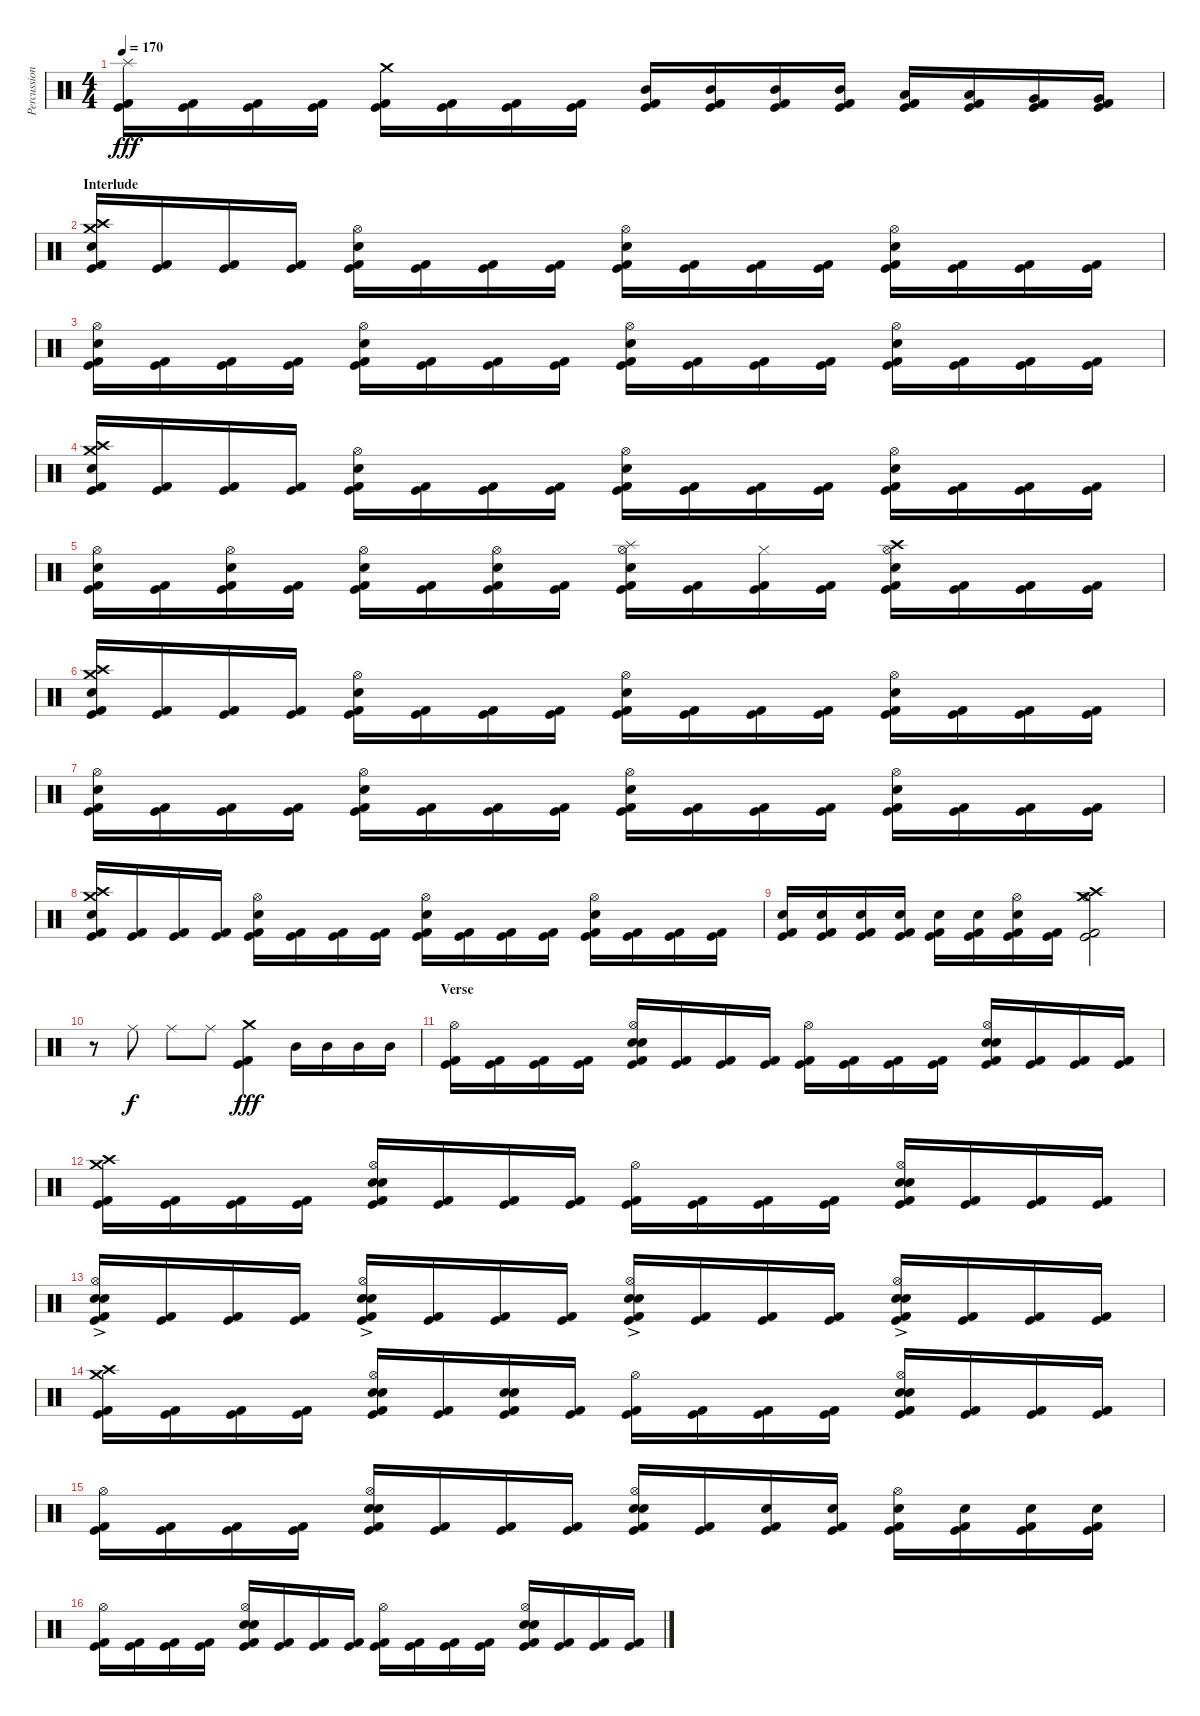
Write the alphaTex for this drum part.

\track ("Percussions" "Percussion") {instrument percussion}
\staff {score}
\articulation defaults
\ts (4 4)
\tempo 170
\clef neutral
\ks c
("Splash (hit)" "Kick (hit)" "Kick (hit) 2").16{dy fff} ("Kick (hit)" "Kick (hit) 2").16 ("Kick (hit)" "Kick (hit) 2").16 ("Kick (hit)" "Kick (hit) 2").16 ("Crash medium (hit)" "Kick (hit)" "Kick (hit) 2").16 ("Kick (hit)" "Kick (hit) 2").16 ("Kick (hit)" "Kick (hit) 2").16 ("Kick (hit)" "Kick (hit) 2").16 ("Mid Tom (hit)" "Kick (hit)" "Kick (hit) 2").16 ("Mid Tom (hit)" "Kick (hit)" "Kick (hit) 2").16 ("Mid Tom (hit)" "Kick (hit)" "Kick (hit) 2").16 ("Mid Tom (hit)" "Kick (hit)" "Kick (hit) 2").16 ("Low Tom (hit)" "Kick (hit)" "Kick (hit) 2").16 ("Low Tom (hit)" "Kick (hit)" "Kick (hit) 2").16 ("Very Low Tom (hit)" "Kick (hit)" "Kick (hit) 2").16 ("Very Low Tom (hit)" "Kick (hit)" "Kick (hit) 2").16 |
\section ("" "Interlude")
("Crash high (hit)" "Crash medium (hit)" "Electric Snare (hit)" "Kick (hit)" "Kick (hit) 2").16 ("Kick (hit)" "Kick (hit) 2").16 ("Kick (hit)" "Kick (hit) 2").16 ("Kick (hit)" "Kick (hit) 2").16 ("Hi-Hat (open)" "Electric Snare (hit)" "Kick (hit)" "Kick (hit) 2").16 ("Kick (hit)" "Kick (hit) 2").16 ("Kick (hit)" "Kick (hit) 2").16 ("Kick (hit)" "Kick (hit) 2").16 ("Hi-Hat (open)" "Electric Snare (hit)" "Kick (hit)" "Kick (hit) 2").16 ("Kick (hit)" "Kick (hit) 2").16 ("Kick (hit)" "Kick (hit) 2").16 ("Kick (hit)" "Kick (hit) 2").16 ("Hi-Hat (open)" "Electric Snare (hit)" "Kick (hit)" "Kick (hit) 2").16 ("Kick (hit)" "Kick (hit) 2").16 ("Kick (hit)" "Kick (hit) 2").16 ("Kick (hit)" "Kick (hit) 2").16 |
("Hi-Hat (open)" "Electric Snare (hit)" "Kick (hit)" "Kick (hit) 2").16 ("Kick (hit)" "Kick (hit) 2").16 ("Kick (hit)" "Kick (hit) 2").16 ("Kick (hit)" "Kick (hit) 2").16 ("Hi-Hat (open)" "Electric Snare (hit)" "Kick (hit)" "Kick (hit) 2").16 ("Kick (hit)" "Kick (hit) 2").16 ("Kick (hit)" "Kick (hit) 2").16 ("Kick (hit)" "Kick (hit) 2").16 ("Hi-Hat (open)" "Electric Snare (hit)" "Kick (hit)" "Kick (hit) 2").16 ("Kick (hit)" "Kick (hit) 2").16 ("Kick (hit)" "Kick (hit) 2").16 ("Kick (hit)" "Kick (hit) 2").16 ("Hi-Hat (open)" "Electric Snare (hit)" "Kick (hit)" "Kick (hit) 2").16 ("Kick (hit)" "Kick (hit) 2").16 ("Kick (hit)" "Kick (hit) 2").16 ("Kick (hit)" "Kick (hit) 2").16 |
("Crash high (hit)" "Crash medium (hit)" "Electric Snare (hit)" "Kick (hit)" "Kick (hit) 2").16 ("Kick (hit)" "Kick (hit) 2").16 ("Kick (hit)" "Kick (hit) 2").16 ("Kick (hit)" "Kick (hit) 2").16 ("Hi-Hat (open)" "Electric Snare (hit)" "Kick (hit)" "Kick (hit) 2").16 ("Kick (hit)" "Kick (hit) 2").16 ("Kick (hit)" "Kick (hit) 2").16 ("Kick (hit)" "Kick (hit) 2").16 ("Hi-Hat (open)" "Electric Snare (hit)" "Kick (hit)" "Kick (hit) 2").16 ("Kick (hit)" "Kick (hit) 2").16 ("Kick (hit)" "Kick (hit) 2").16 ("Kick (hit)" "Kick (hit) 2").16 ("Hi-Hat (open)" "Electric Snare (hit)" "Kick (hit)" "Kick (hit) 2").16 ("Kick (hit)" "Kick (hit) 2").16 ("Kick (hit)" "Kick (hit) 2").16 ("Kick (hit)" "Kick (hit) 2").16 |
("Hi-Hat (open)" "Electric Snare (hit)" "Kick (hit)" "Kick (hit) 2").16 ("Kick (hit)" "Kick (hit) 2").16 ("Hi-Hat (open)" "Electric Snare (hit)" "Kick (hit)" "Kick (hit) 2").16 ("Kick (hit)" "Kick (hit) 2").16 ("Hi-Hat (open)" "Electric Snare (hit)" "Kick (hit)" "Kick (hit) 2").16 ("Kick (hit)" "Kick (hit) 2").16 ("Hi-Hat (open)" "Electric Snare (hit)" "Kick (hit)" "Kick (hit) 2").16 ("Kick (hit)" "Kick (hit) 2").16 ("Splash (hit)" "Hi-Hat (open)" "Electric Snare (hit)" "Kick (hit)" "Kick (hit) 2").16 ("Kick (hit)" "Kick (hit) 2").16 ("Hi-Hat (closed)" "Kick (hit)" "Kick (hit) 2").16 ("Kick (hit)" "Kick (hit) 2").16 ("Crash high (hit)" "Hi-Hat (open)" "Electric Snare (hit)" "Kick (hit)" "Kick (hit) 2").16 ("Kick (hit)" "Kick (hit) 2").16 ("Kick (hit)" "Kick (hit) 2").16 ("Kick (hit)" "Kick (hit) 2").16 |
("Crash high (hit)" "Crash medium (hit)" "Electric Snare (hit)" "Kick (hit)" "Kick (hit) 2").16 ("Kick (hit)" "Kick (hit) 2").16 ("Kick (hit)" "Kick (hit) 2").16 ("Kick (hit)" "Kick (hit) 2").16 ("Hi-Hat (open)" "Electric Snare (hit)" "Kick (hit)" "Kick (hit) 2").16 ("Kick (hit)" "Kick (hit) 2").16 ("Kick (hit)" "Kick (hit) 2").16 ("Kick (hit)" "Kick (hit) 2").16 ("Hi-Hat (open)" "Electric Snare (hit)" "Kick (hit)" "Kick (hit) 2").16 ("Kick (hit)" "Kick (hit) 2").16 ("Kick (hit)" "Kick (hit) 2").16 ("Kick (hit)" "Kick (hit) 2").16 ("Hi-Hat (open)" "Electric Snare (hit)" "Kick (hit)" "Kick (hit) 2").16 ("Kick (hit)" "Kick (hit) 2").16 ("Kick (hit)" "Kick (hit) 2").16 ("Kick (hit)" "Kick (hit) 2").16 |
("Hi-Hat (open)" "Electric Snare (hit)" "Kick (hit)" "Kick (hit) 2").16 ("Kick (hit)" "Kick (hit) 2").16 ("Kick (hit)" "Kick (hit) 2").16 ("Kick (hit)" "Kick (hit) 2").16 ("Hi-Hat (open)" "Electric Snare (hit)" "Kick (hit)" "Kick (hit) 2").16 ("Kick (hit)" "Kick (hit) 2").16 ("Kick (hit)" "Kick (hit) 2").16 ("Kick (hit)" "Kick (hit) 2").16 ("Hi-Hat (open)" "Electric Snare (hit)" "Kick (hit)" "Kick (hit) 2").16 ("Kick (hit)" "Kick (hit) 2").16 ("Kick (hit)" "Kick (hit) 2").16 ("Kick (hit)" "Kick (hit) 2").16 ("Hi-Hat (open)" "Electric Snare (hit)" "Kick (hit)" "Kick (hit) 2").16 ("Kick (hit)" "Kick (hit) 2").16 ("Kick (hit)" "Kick (hit) 2").16 ("Kick (hit)" "Kick (hit) 2").16 |
("Crash high (hit)" "Crash medium (hit)" "Electric Snare (hit)" "Kick (hit)" "Kick (hit) 2").16 ("Kick (hit)" "Kick (hit) 2").16 ("Kick (hit)" "Kick (hit) 2").16 ("Kick (hit)" "Kick (hit) 2").16 ("Hi-Hat (open)" "Electric Snare (hit)" "Kick (hit)" "Kick (hit) 2").16 ("Kick (hit)" "Kick (hit) 2").16 ("Kick (hit)" "Kick (hit) 2").16 ("Kick (hit)" "Kick (hit) 2").16 ("Hi-Hat (open)" "Electric Snare (hit)" "Kick (hit)" "Kick (hit) 2").16 ("Kick (hit)" "Kick (hit) 2").16 ("Kick (hit)" "Kick (hit) 2").16 ("Kick (hit)" "Kick (hit) 2").16 ("Hi-Hat (open)" "Electric Snare (hit)" "Kick (hit)" "Kick (hit) 2").16 ("Kick (hit)" "Kick (hit) 2").16 ("Kick (hit)" "Kick (hit) 2").16 ("Kick (hit)" "Kick (hit) 2").16 |
("Electric Snare (hit)" "Kick (hit)" "Kick (hit) 2").16 ("Electric Snare (hit)" "Kick (hit)" "Kick (hit) 2").16 ("Electric Snare (hit)" "Kick (hit)" "Kick (hit) 2").16 ("Electric Snare (hit)" "Kick (hit)" "Kick (hit) 2").16 ("Electric Snare (hit)" "Kick (hit)" "Kick (hit) 2").16 ("Electric Snare (hit)" "Kick (hit)" "Kick (hit) 2").16 ("Hi-Hat (open)" "Electric Snare (hit)" "Kick (hit)" "Kick (hit) 2").16 ("Kick (hit)" "Kick (hit) 2").16 ("Crash high (hit)" "Crash medium (hit)" "Hi-Hat (open)" "Kick (hit)" "Kick (hit) 2").2 |
r.8 "Ride (middle)".8{dy f} "Ride (middle)".8 "Ride (middle)".8 ("Crash medium (hit)" "Kick (hit)" "Kick (hit) 2").4{dy fff} "Mid Tom (hit)".16 "Mid Tom (hit)".16 "Mid Tom (hit)".16 "Mid Tom (hit)".16 |
\section ("" "Verse")
("Hi-Hat (open)" "Kick (hit)" "Kick (hit) 2").16 ("Kick (hit)" "Kick (hit) 2").16 ("Kick (hit)" "Kick (hit) 2").16 ("Kick (hit)" "Kick (hit) 2").16 ("Hi-Hat (open)" "Snare (hit) 2" "Electric Snare (hit)" "Kick (hit)" "Kick (hit) 2").16 ("Kick (hit)" "Kick (hit) 2").16 ("Kick (hit)" "Kick (hit) 2").16 ("Kick (hit)" "Kick (hit) 2").16 ("Hi-Hat (open)" "Kick (hit)" "Kick (hit) 2").16 ("Kick (hit)" "Kick (hit) 2").16 ("Kick (hit)" "Kick (hit) 2").16 ("Kick (hit)" "Kick (hit) 2").16 ("Hi-Hat (open)" "Snare (hit) 2" "Electric Snare (hit)" "Kick (hit)" "Kick (hit) 2").16 ("Kick (hit)" "Kick (hit) 2").16 ("Kick (hit)" "Kick (hit) 2").16 ("Kick (hit)" "Kick (hit) 2").16 |
("Crash high (hit)" "Crash medium (hit)" "Kick (hit)" "Kick (hit) 2").16 ("Kick (hit)" "Kick (hit) 2").16 ("Kick (hit)" "Kick (hit) 2").16 ("Kick (hit)" "Kick (hit) 2").16 ("Hi-Hat (open)" "Snare (hit) 2" "Electric Snare (hit)" "Kick (hit)" "Kick (hit) 2").16 ("Kick (hit)" "Kick (hit) 2").16 ("Kick (hit)" "Kick (hit) 2").16 ("Kick (hit)" "Kick (hit) 2").16 ("Hi-Hat (open)" "Kick (hit)" "Kick (hit) 2").16 ("Kick (hit)" "Kick (hit) 2").16 ("Kick (hit)" "Kick (hit) 2").16 ("Kick (hit)" "Kick (hit) 2").16 ("Hi-Hat (open)" "Snare (hit) 2" "Electric Snare (hit)" "Kick (hit)" "Kick (hit) 2").16 ("Kick (hit)" "Kick (hit) 2").16 ("Kick (hit)" "Kick (hit) 2").16 ("Kick (hit)" "Kick (hit) 2").16 |
("Hi-Hat (open)" "Snare (hit) 2"{ac} "Electric Snare (hit)"{ac} "Kick (hit)" "Kick (hit) 2").16 ("Kick (hit)" "Kick (hit) 2").16 ("Kick (hit)" "Kick (hit) 2").16 ("Kick (hit)" "Kick (hit) 2").16 ("Hi-Hat (open)" "Snare (hit) 2"{ac} "Electric Snare (hit)"{ac} "Kick (hit)" "Kick (hit) 2").16 ("Kick (hit)" "Kick (hit) 2").16 ("Kick (hit)" "Kick (hit) 2").16 ("Kick (hit)" "Kick (hit) 2").16 ("Hi-Hat (open)" "Snare (hit) 2"{ac} "Electric Snare (hit)"{ac} "Kick (hit)" "Kick (hit) 2").16 ("Kick (hit)" "Kick (hit) 2").16 ("Kick (hit)" "Kick (hit) 2").16 ("Kick (hit)" "Kick (hit) 2").16 ("Hi-Hat (open)" "Snare (hit) 2"{ac} "Electric Snare (hit)"{ac} "Kick (hit)" "Kick (hit) 2").16 ("Kick (hit)" "Kick (hit) 2").16 ("Kick (hit)" "Kick (hit) 2").16 ("Kick (hit)" "Kick (hit) 2").16 |
("Crash high (hit)" "Crash medium (hit)" "Kick (hit)" "Kick (hit) 2").16 ("Kick (hit)" "Kick (hit) 2").16 ("Kick (hit)" "Kick (hit) 2").16 ("Kick (hit)" "Kick (hit) 2").16 ("Hi-Hat (open)" "Snare (hit) 2" "Electric Snare (hit)" "Kick (hit)" "Kick (hit) 2").16 ("Kick (hit)" "Kick (hit) 2").16 ("Snare (hit) 2" "Electric Snare (hit)" "Kick (hit)" "Kick (hit) 2").16 ("Kick (hit)" "Kick (hit) 2").16 ("Hi-Hat (open)" "Kick (hit)" "Kick (hit) 2").16 ("Kick (hit)" "Kick (hit) 2").16 ("Kick (hit)" "Kick (hit) 2").16 ("Kick (hit)" "Kick (hit) 2").16 ("Hi-Hat (open)" "Snare (hit) 2" "Electric Snare (hit)" "Kick (hit)" "Kick (hit) 2").16 ("Kick (hit)" "Kick (hit) 2").16 ("Kick (hit)" "Kick (hit) 2").16 ("Kick (hit)" "Kick (hit) 2").16 |
("Hi-Hat (open)" "Kick (hit)" "Kick (hit) 2").16 ("Kick (hit)" "Kick (hit) 2").16 ("Kick (hit)" "Kick (hit) 2").16 ("Kick (hit)" "Kick (hit) 2").16 ("Hi-Hat (open)" "Snare (hit) 2" "Electric Snare (hit)" "Kick (hit)" "Kick (hit) 2").16 ("Kick (hit)" "Kick (hit) 2").16 ("Kick (hit)" "Kick (hit) 2").16 ("Kick (hit)" "Kick (hit) 2").16 ("Hi-Hat (open)" "Snare (hit) 2" "Electric Snare (hit)" "Kick (hit)" "Kick (hit) 2").16 ("Kick (hit)" "Kick (hit) 2").16 ("Electric Snare (hit)" "Kick (hit)" "Kick (hit) 2").16 ("Electric Snare (hit)" "Kick (hit)" "Kick (hit) 2").16 ("Hi-Hat (open)" "Electric Snare (hit)" "Kick (hit)" "Kick (hit) 2").16 ("Electric Snare (hit)" "Kick (hit)" "Kick (hit) 2").16 ("Electric Snare (hit)" "Kick (hit)" "Kick (hit) 2").16 ("Electric Snare (hit)" "Kick (hit)" "Kick (hit) 2").16 |
("Hi-Hat (open)" "Kick (hit)" "Kick (hit) 2").16 ("Kick (hit)" "Kick (hit) 2").16 ("Kick (hit)" "Kick (hit) 2").16 ("Kick (hit)" "Kick (hit) 2").16 ("Hi-Hat (open)" "Snare (hit) 2" "Electric Snare (hit)" "Kick (hit)" "Kick (hit) 2").16 ("Kick (hit)" "Kick (hit) 2").16 ("Kick (hit)" "Kick (hit) 2").16 ("Kick (hit)" "Kick (hit) 2").16 ("Hi-Hat (open)" "Kick (hit)" "Kick (hit) 2").16 ("Kick (hit)" "Kick (hit) 2").16 ("Kick (hit)" "Kick (hit) 2").16 ("Kick (hit)" "Kick (hit) 2").16 ("Hi-Hat (open)" "Snare (hit) 2" "Electric Snare (hit)" "Kick (hit)" "Kick (hit) 2").16 ("Kick (hit)" "Kick (hit) 2").16 ("Kick (hit)" "Kick (hit) 2").16 ("Kick (hit)" "Kick (hit) 2").16
